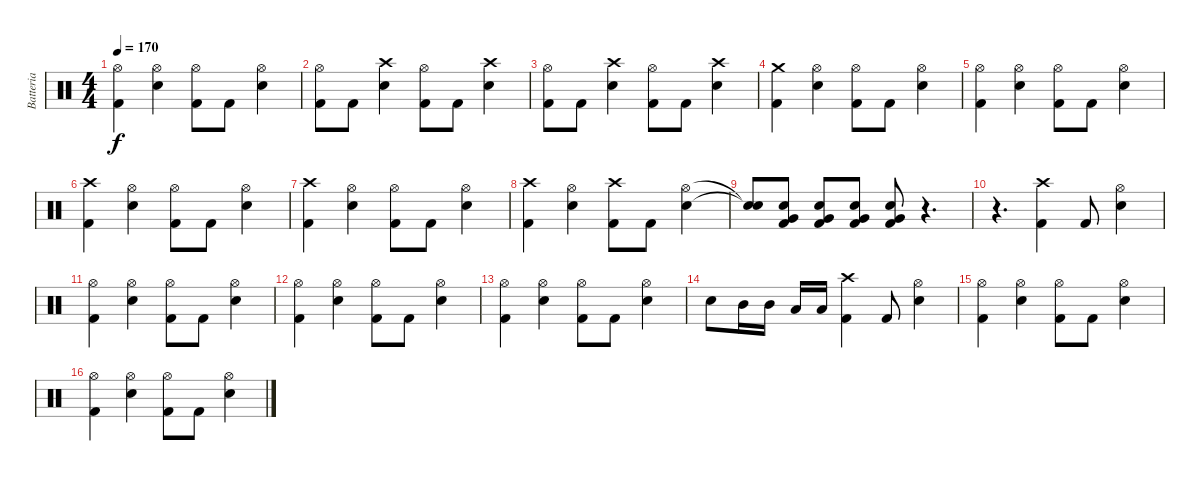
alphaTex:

\track ("Batteria" "Batteria") {instrument percussion}
\staff {score}
\articulation defaults
\ts (4 4)
\tempo 170
\clef neutral
\ks c
("Hi-Hat (open)" "Kick (hit) 2").4{dy f} ("Hi-Hat (open)" "Snare (hit) 2").4 ("Hi-Hat (open)" "Kick (hit) 2").8 "Kick (hit) 2".8 ("Hi-Hat (open)" "Snare (hit) 2").4 |
("Hi-Hat (open)" "Kick (hit) 2").8 "Kick (hit) 2".8 ("Crash high (hit)" "Snare (hit) 2").4 ("Hi-Hat (open)" "Kick (hit) 2").8 "Kick (hit) 2".8 ("Crash high (hit)" "Snare (hit) 2").4 |
("Hi-Hat (open)" "Kick (hit) 2").8 "Kick (hit) 2".8 ("Crash high (hit)" "Snare (hit) 2").4 ("Hi-Hat (open)" "Kick (hit) 2").8 "Kick (hit) 2".8 ("Crash high (hit)" "Snare (hit) 2").4 |
("Crash medium (hit)" "Kick (hit) 2").4 ("Hi-Hat (open)" "Snare (hit) 2").4 ("Hi-Hat (open)" "Kick (hit) 2").8 "Kick (hit) 2".8 ("Hi-Hat (open)" "Snare (hit) 2").4 |
("Hi-Hat (open)" "Kick (hit) 2").4 ("Hi-Hat (open)" "Snare (hit) 2").4 ("Hi-Hat (open)" "Kick (hit) 2").8 "Kick (hit) 2".8 ("Hi-Hat (open)" "Snare (hit) 2").4 |
("Crash high (hit)" "Kick (hit) 2").4 ("Hi-Hat (open)" "Snare (hit) 2").4 ("Hi-Hat (open)" "Kick (hit) 2").8 "Kick (hit) 2".8 ("Hi-Hat (open)" "Snare (hit) 2").4 |
("Crash high (hit)" "Kick (hit) 2").4 ("Hi-Hat (open)" "Snare (hit) 2").4 ("Hi-Hat (open)" "Kick (hit) 2").8 "Kick (hit) 2".8 ("Hi-Hat (open)" "Snare (hit) 2").4 |
("Crash high (hit)" "Kick (hit) 2").4 ("Hi-Hat (open)" "Snare (hit) 2").4 ("Crash high (hit)" "Kick (hit) 2").8 "Kick (hit) 2".8 ("Hi-Hat (open)" "Snare (hit) 2").4 |
("Snare (hit)"{t} "Snare (hit)"{t}).8 ("Snare (hit) 2" "Very Low Tom (hit)" "Kick (hit) 2").8 ("Snare (hit) 2" "Very Low Tom (hit)" "Kick (hit) 2").8 ("Snare (hit) 2" "Very Low Tom (hit)" "Kick (hit) 2").8 ("Snare (hit) 2" "Very Low Tom (hit)" "Kick (hit) 2").8 r.4{d} |
r.4{d} ("Crash high (hit)" "Kick (hit) 2").4 "Kick (hit) 2".8 ("Hi-Hat (open)" "Snare (hit) 2").4 |
("Hi-Hat (open)" "Kick (hit) 2").4 ("Hi-Hat (open)" "Snare (hit) 2").4 ("Hi-Hat (open)" "Kick (hit) 2").8 "Kick (hit) 2".8 ("Hi-Hat (open)" "Snare (hit) 2").4 |
("Hi-Hat (open)" "Kick (hit) 2").4 ("Hi-Hat (open)" "Snare (hit) 2").4 ("Hi-Hat (open)" "Kick (hit) 2").8 "Kick (hit) 2".8 ("Hi-Hat (open)" "Snare (hit) 2").4 |
("Hi-Hat (open)" "Kick (hit) 2").4 ("Hi-Hat (open)" "Snare (hit) 2").4 ("Hi-Hat (open)" "Kick (hit) 2").8 "Kick (hit) 2".8 ("Hi-Hat (open)" "Snare (hit) 2").4 |
"Snare (hit) 2".8 "Mid Tom (hit)".16 "Mid Tom (hit)".16 "Low Tom (hit)".16 "Low Tom (hit)".16 ("Crash high (hit)" "Kick (hit) 2").4 "Kick (hit) 2".8 ("Hi-Hat (open)" "Snare (hit) 2").4 |
("Hi-Hat (open)" "Kick (hit) 2").4 ("Hi-Hat (open)" "Snare (hit) 2").4 ("Hi-Hat (open)" "Kick (hit) 2").8 "Kick (hit) 2".8 ("Hi-Hat (open)" "Snare (hit) 2").4 |
("Hi-Hat (open)" "Kick (hit) 2").4 ("Hi-Hat (open)" "Snare (hit) 2").4 ("Hi-Hat (open)" "Kick (hit) 2").8 "Kick (hit) 2".8 ("Hi-Hat (open)" "Snare (hit) 2").4
